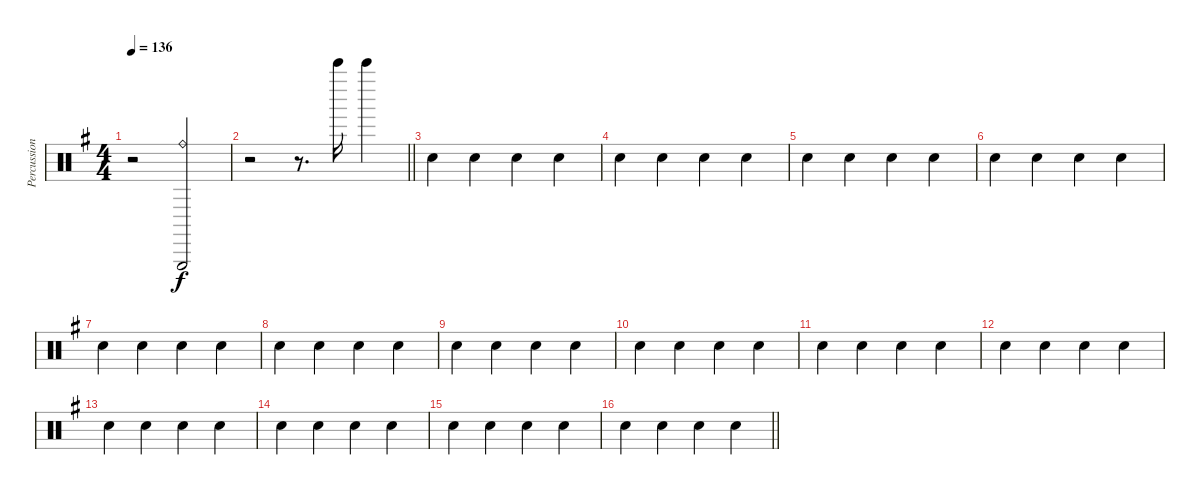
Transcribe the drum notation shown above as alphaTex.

\track ("Percussions" "Percussion") {instrument percussion}
\staff {score}
\articulation defaults
\ts (4 4)
\tempo 136
\clef neutral
\ks g
r.2{dy f} ("Triangle (hit)" "Ride (bell)").2 |
\barLineRight lightlight
r.2 r.8{d} "Bell Tree (hit)".16 "Bell Tree (hit)".4 |
"Hand Clap (hit)".4 "Hand Clap (hit)".4 "Hand Clap (hit)".4 "Hand Clap (hit)".4 |
"Hand Clap (hit)".4 "Hand Clap (hit)".4 "Hand Clap (hit)".4 "Hand Clap (hit)".4 |
"Hand Clap (hit)".4 "Hand Clap (hit)".4 "Hand Clap (hit)".4 "Hand Clap (hit)".4 |
"Hand Clap (hit)".4 "Hand Clap (hit)".4 "Hand Clap (hit)".4 "Hand Clap (hit)".4 |
"Hand Clap (hit)".4 "Hand Clap (hit)".4 "Hand Clap (hit)".4 "Hand Clap (hit)".4 |
"Hand Clap (hit)".4 "Hand Clap (hit)".4 "Hand Clap (hit)".4 "Hand Clap (hit)".4 |
"Hand Clap (hit)".4 "Hand Clap (hit)".4 "Hand Clap (hit)".4 "Hand Clap (hit)".4 |
"Hand Clap (hit)".4 "Hand Clap (hit)".4 "Hand Clap (hit)".4 "Hand Clap (hit)".4 |
"Hand Clap (hit)".4 "Hand Clap (hit)".4 "Hand Clap (hit)".4 "Hand Clap (hit)".4 |
"Hand Clap (hit)".4 "Hand Clap (hit)".4 "Hand Clap (hit)".4 "Hand Clap (hit)".4 |
"Hand Clap (hit)".4 "Hand Clap (hit)".4 "Hand Clap (hit)".4 "Hand Clap (hit)".4 |
"Hand Clap (hit)".4 "Hand Clap (hit)".4 "Hand Clap (hit)".4 "Hand Clap (hit)".4 |
"Hand Clap (hit)".4 "Hand Clap (hit)".4 "Hand Clap (hit)".4 "Hand Clap (hit)".4 |
\barLineRight lightlight "Hand Clap (hit)".4 "Hand Clap (hit)".4 "Hand Clap (hit)".4 "Hand Clap (hit)".4
